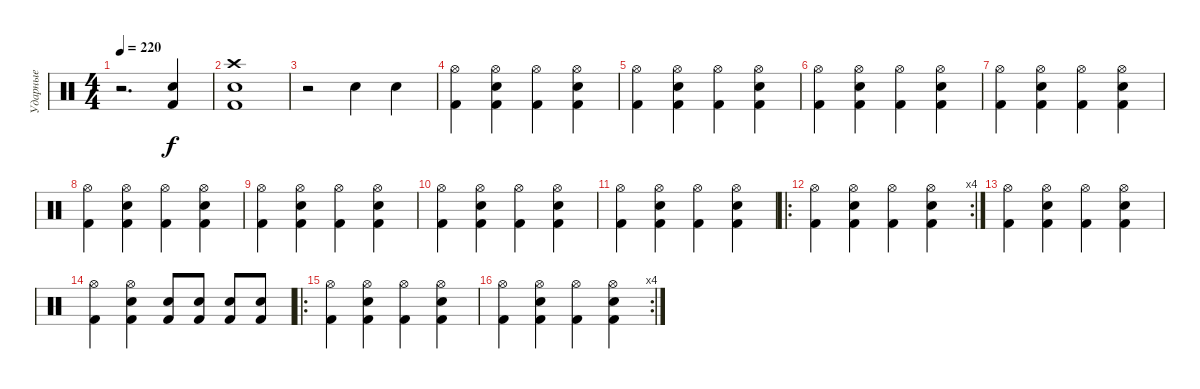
\track ("Ударные" "Ударные") {instrument percussion}
\staff
\articulation defaults
\ts (4 4)
\tempo 220
\clef neutral
\ks c
r.2{d dy f} ("Kick (hit) 2" "Snare (hit) 2").4 |
("Kick (hit) 2" "Snare (hit) 2" "Crash high (hit)").1 |
r.2 "Snare (hit) 2".4 "Snare (hit) 2".4 |
("Kick (hit) 2" "Hi-Hat (open)").4 ("Kick (hit) 2" "Snare (hit) 2" "Hi-Hat (open)").4 ("Kick (hit) 2" "Hi-Hat (open)").4 ("Kick (hit) 2" "Snare (hit) 2" "Hi-Hat (open)").4 |
("Kick (hit) 2" "Hi-Hat (open)").4 ("Kick (hit) 2" "Snare (hit) 2" "Hi-Hat (open)").4 ("Kick (hit) 2" "Hi-Hat (open)").4 ("Kick (hit) 2" "Snare (hit) 2" "Hi-Hat (open)").4 |
("Kick (hit) 2" "Hi-Hat (open)").4 ("Kick (hit) 2" "Snare (hit) 2" "Hi-Hat (open)").4 ("Kick (hit) 2" "Hi-Hat (open)").4 ("Kick (hit) 2" "Snare (hit) 2" "Hi-Hat (open)").4 |
("Kick (hit) 2" "Hi-Hat (open)").4 ("Kick (hit) 2" "Snare (hit) 2" "Hi-Hat (open)").4 ("Kick (hit) 2" "Hi-Hat (open)").4 ("Kick (hit) 2" "Snare (hit) 2" "Hi-Hat (open)").4 |
("Kick (hit) 2" "Hi-Hat (open)").4 ("Kick (hit) 2" "Snare (hit) 2" "Hi-Hat (open)").4 ("Kick (hit) 2" "Hi-Hat (open)").4 ("Kick (hit) 2" "Snare (hit) 2" "Hi-Hat (open)").4 |
("Kick (hit) 2" "Hi-Hat (open)").4 ("Kick (hit) 2" "Snare (hit) 2" "Hi-Hat (open)").4 ("Kick (hit) 2" "Hi-Hat (open)").4 ("Kick (hit) 2" "Snare (hit) 2" "Hi-Hat (open)").4 |
("Kick (hit) 2" "Hi-Hat (open)").4 ("Kick (hit) 2" "Snare (hit) 2" "Hi-Hat (open)").4 ("Kick (hit) 2" "Hi-Hat (open)").4 ("Kick (hit) 2" "Snare (hit) 2" "Hi-Hat (open)").4 |
("Kick (hit) 2" "Hi-Hat (open)").4 ("Kick (hit) 2" "Snare (hit) 2" "Hi-Hat (open)").4 ("Kick (hit) 2" "Hi-Hat (open)").4 ("Kick (hit) 2" "Snare (hit) 2" "Hi-Hat (open)").4 |
\ro
\rc 4
("Kick (hit) 2" "Hi-Hat (open)").4 ("Kick (hit) 2" "Snare (hit) 2" "Hi-Hat (open)").4 ("Kick (hit) 2" "Hi-Hat (open)").4 ("Kick (hit) 2" "Snare (hit) 2" "Hi-Hat (open)").4 |
("Kick (hit) 2" "Hi-Hat (open)").4 ("Kick (hit) 2" "Snare (hit) 2" "Hi-Hat (open)").4 ("Kick (hit) 2" "Hi-Hat (open)").4 ("Kick (hit) 2" "Snare (hit) 2" "Hi-Hat (open)").4 |
("Kick (hit) 2" "Hi-Hat (open)").4 ("Kick (hit) 2" "Snare (hit) 2" "Hi-Hat (open)").4 ("Kick (hit) 2" "Snare (hit) 2").8 ("Kick (hit) 2" "Snare (hit) 2").8 ("Kick (hit) 2" "Snare (hit) 2").8 ("Kick (hit) 2" "Snare (hit) 2").8 |
\ro
("Kick (hit) 2" "Hi-Hat (open)").4 ("Kick (hit) 2" "Snare (hit) 2" "Hi-Hat (open)").4 ("Kick (hit) 2" "Hi-Hat (open)").4 ("Kick (hit) 2" "Snare (hit) 2" "Hi-Hat (open)").4 |
\rc 4
("Kick (hit) 2" "Hi-Hat (open)").4 ("Kick (hit) 2" "Snare (hit) 2" "Hi-Hat (open)").4 ("Kick (hit) 2" "Hi-Hat (open)").4 ("Kick (hit) 2" "Snare (hit) 2" "Hi-Hat (open)").4
